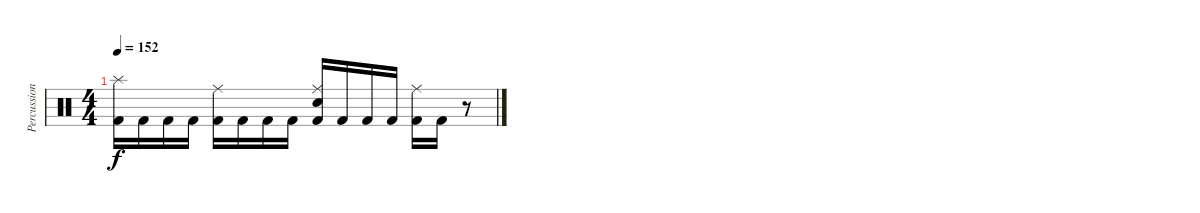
\track ("Percussion" "Percussion") {instrument percussion}
\staff {score}
\articulation defaults
\ts (4 4)
\tempo 152
\clef neutral
\ks c
("Splash (hit)" "Kick (hit) 2").16{dy f} "Kick (hit) 2".16 "Kick (hit) 2".16 "Kick (hit) 2".16 ("Ride (middle)" "Kick (hit) 2").16 "Kick (hit) 2".16 "Kick (hit) 2".16 "Kick (hit) 2".16 ("Ride (middle)" "Electric Snare (hit)" "Kick (hit) 2").16 "Kick (hit) 2".16 "Kick (hit) 2".16 "Kick (hit) 2".16 ("Ride (middle)" "Kick (hit) 2").16 "Kick (hit) 2".16 r.8
